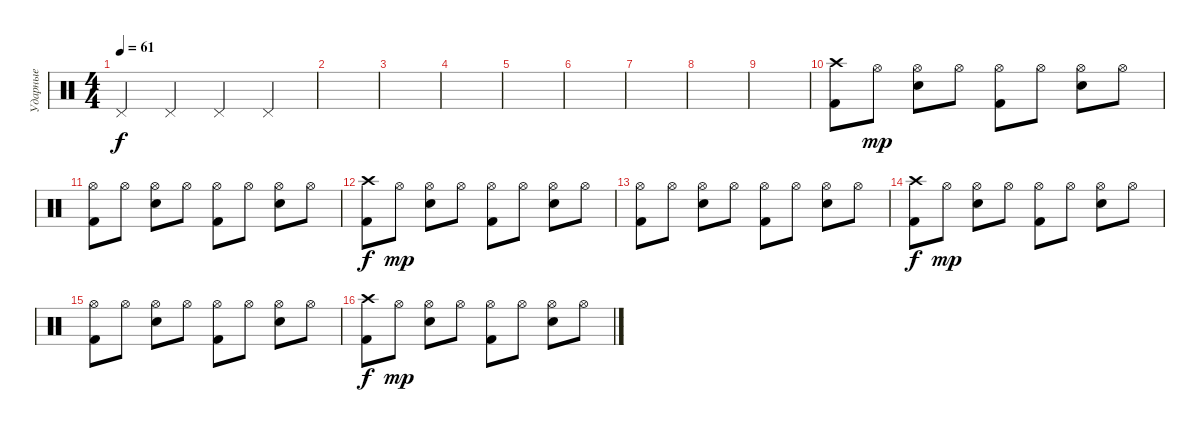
\track ("Ударные" "Ударные") {instrument percussion}
\staff {score}
\articulation defaults
\ts (4 4)
\tempo 61
\clef neutral
\ks c "Pedal Hi-Hat (hit)".4{dy f} "Pedal Hi-Hat (hit)".4 "Pedal Hi-Hat (hit)".4 "Pedal Hi-Hat (hit)".4
|
|
|
|
|
|
|
|
|
("Kick (hit) 2" "Crash high (hit)").8 "Hi-Hat (open)".8{dy mp} ("Electric Snare (hit)" "Hi-Hat (open)").8 "Hi-Hat (open)".8 ("Kick (hit) 2" "Hi-Hat (open)").8 "Hi-Hat (open)".8 ("Electric Snare (hit)" "Hi-Hat (open)").8 "Hi-Hat (open)".8 |
("Kick (hit) 2" "Hi-Hat (open)").8 "Hi-Hat (open)".8 ("Electric Snare (hit)" "Hi-Hat (open)").8 "Hi-Hat (open)".8 ("Kick (hit) 2" "Hi-Hat (open)").8 "Hi-Hat (open)".8 ("Electric Snare (hit)" "Hi-Hat (open)").8 "Hi-Hat (open)".8 |
("Kick (hit) 2" "Crash high (hit)").8{dy f} "Hi-Hat (open)".8{dy mp} ("Electric Snare (hit)" "Hi-Hat (open)").8 "Hi-Hat (open)".8 ("Kick (hit) 2" "Hi-Hat (open)").8 "Hi-Hat (open)".8 ("Electric Snare (hit)" "Hi-Hat (open)").8 "Hi-Hat (open)".8 |
("Kick (hit) 2" "Hi-Hat (open)").8 "Hi-Hat (open)".8 ("Electric Snare (hit)" "Hi-Hat (open)").8 "Hi-Hat (open)".8 ("Kick (hit) 2" "Hi-Hat (open)").8 "Hi-Hat (open)".8 ("Electric Snare (hit)" "Hi-Hat (open)").8 "Hi-Hat (open)".8 |
("Kick (hit) 2" "Crash high (hit)").8{dy f} "Hi-Hat (open)".8{dy mp} ("Electric Snare (hit)" "Hi-Hat (open)").8 "Hi-Hat (open)".8 ("Kick (hit) 2" "Hi-Hat (open)").8 "Hi-Hat (open)".8 ("Electric Snare (hit)" "Hi-Hat (open)").8 "Hi-Hat (open)".8 |
("Kick (hit) 2" "Hi-Hat (open)").8 "Hi-Hat (open)".8 ("Electric Snare (hit)" "Hi-Hat (open)").8 "Hi-Hat (open)".8 ("Kick (hit) 2" "Hi-Hat (open)").8 "Hi-Hat (open)".8 ("Electric Snare (hit)" "Hi-Hat (open)").8 "Hi-Hat (open)".8 |
("Kick (hit) 2" "Crash high (hit)").8{dy f} "Hi-Hat (open)".8{dy mp} ("Electric Snare (hit)" "Hi-Hat (open)").8 "Hi-Hat (open)".8 ("Kick (hit) 2" "Hi-Hat (open)").8 "Hi-Hat (open)".8 ("Electric Snare (hit)" "Hi-Hat (open)").8 "Hi-Hat (open)".8
